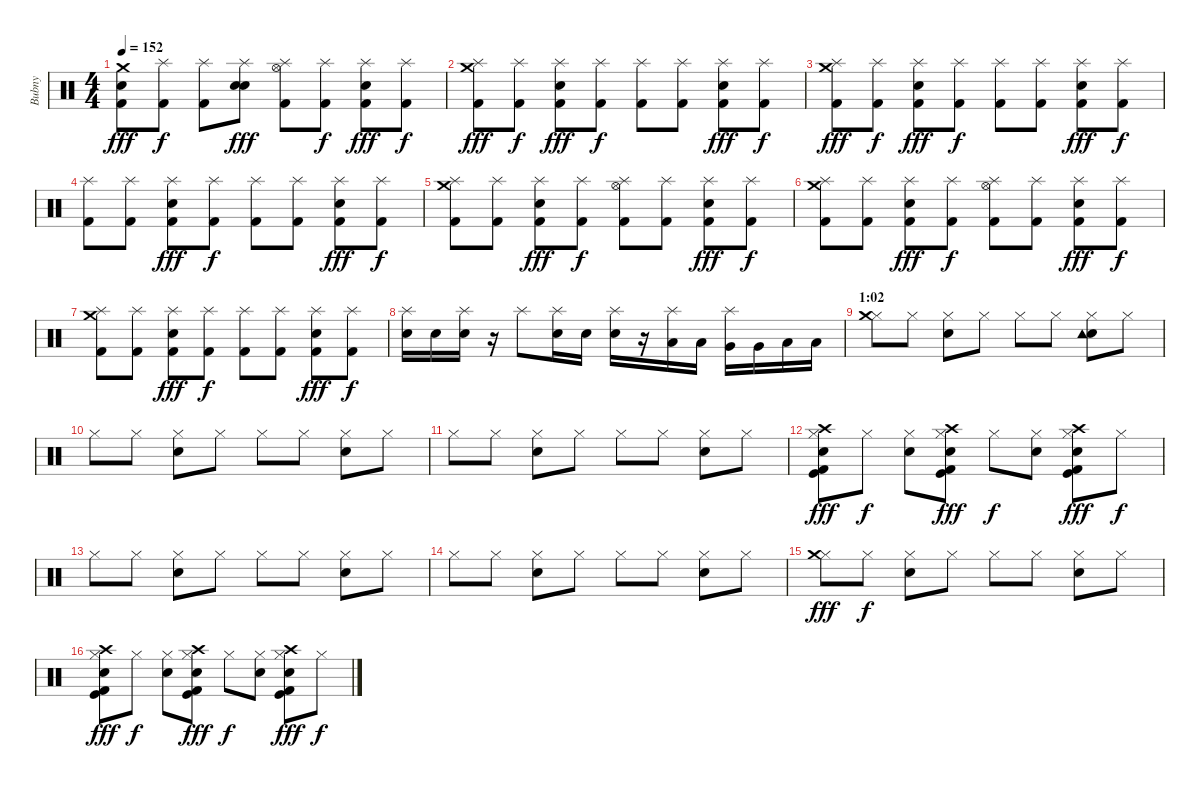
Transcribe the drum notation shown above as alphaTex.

\track ("Bubny" "Bubny") {instrument percussion}
\staff {score}
\articulation defaults
\ts (4 4)
\tempo 152
\clef neutral
\ks c
("Kick (hit) 2" "Electric Snare (hit)" "Crash medium (hit)").8{dy fff} ("Splash (hit)" "Kick (hit) 2").8{dy f} ("Splash (hit)" "Kick (hit) 2").8 ("Splash (hit)" "Electric Snare (hit)" "Snare (hit) 2").8{dy fff} ("Splash (hit)" "Kick (hit) 2" "Hi-Hat (open)").8 ("Splash (hit)" "Kick (hit) 2").8{dy f} ("Splash (hit)" "Kick (hit) 2" "Snare (hit) 2").8{dy fff} ("Splash (hit)" "Kick (hit) 2").8{dy f} |
("Splash (hit)" "Kick (hit) 2" "Crash medium (hit)").8{dy fff} ("Splash (hit)" "Kick (hit) 2").8{dy f} ("Splash (hit)" "Kick (hit) 2" "Snare (hit) 2").8{dy fff} ("Splash (hit)" "Kick (hit) 2").8{dy f} ("Splash (hit)" "Kick (hit) 2").8 ("Splash (hit)" "Kick (hit) 2").8 ("Splash (hit)" "Kick (hit) 2" "Snare (hit) 2").8{dy fff} ("Splash (hit)" "Kick (hit) 2").8{dy f} |
("Splash (hit)" "Kick (hit) 2" "Crash medium (hit)").8{dy fff} ("Splash (hit)" "Kick (hit) 2").8{dy f} ("Splash (hit)" "Kick (hit) 2" "Snare (hit) 2").8{dy fff} ("Splash (hit)" "Kick (hit) 2").8{dy f} ("Splash (hit)" "Kick (hit) 2").8 ("Splash (hit)" "Kick (hit) 2").8 ("Splash (hit)" "Kick (hit) 2" "Snare (hit) 2").8{dy fff} ("Splash (hit)" "Kick (hit) 2").8{dy f} |
("Splash (hit)" "Kick (hit) 2").8 ("Splash (hit)" "Kick (hit) 2").8 ("Splash (hit)" "Kick (hit) 2" "Snare (hit) 2").8{dy fff} ("Splash (hit)" "Kick (hit) 2").8{dy f} ("Splash (hit)" "Kick (hit) 2").8 ("Splash (hit)" "Kick (hit) 2").8 ("Splash (hit)" "Kick (hit) 2" "Snare (hit) 2").8{dy fff} ("Splash (hit)" "Kick (hit) 2").8{dy f} |
("Splash (hit)" "Kick (hit) 2" "Crash medium (hit)").8 ("Splash (hit)" "Kick (hit) 2").8 ("Splash (hit)" "Kick (hit) 2" "Snare (hit) 2").8{dy fff} ("Splash (hit)" "Kick (hit) 2").8{dy f} ("Splash (hit)" "Kick (hit) 2" "Hi-Hat (open)").8 ("Splash (hit)" "Kick (hit) 2").8 ("Splash (hit)" "Kick (hit) 2" "Snare (hit) 2").8{dy fff} ("Splash (hit)" "Kick (hit) 2").8{dy f} |
("Splash (hit)" "Kick (hit) 2" "Crash medium (hit)").8 ("Splash (hit)" "Kick (hit) 2").8 ("Splash (hit)" "Kick (hit) 2" "Snare (hit) 2").8{dy fff} ("Splash (hit)" "Kick (hit) 2").8{dy f} ("Splash (hit)" "Kick (hit) 2" "Hi-Hat (open)").8 ("Splash (hit)" "Kick (hit) 2").8 ("Splash (hit)" "Kick (hit) 2" "Snare (hit) 2").8{dy fff} ("Splash (hit)" "Kick (hit) 2").8{dy f} |
("Splash (hit)" "Kick (hit) 2" "Crash medium (hit)").8 ("Splash (hit)" "Kick (hit) 2").8 ("Splash (hit)" "Kick (hit) 2" "Snare (hit) 2").8{dy fff} ("Splash (hit)" "Kick (hit) 2").8{dy f} ("Splash (hit)" "Kick (hit) 2").8 ("Splash (hit)" "Kick (hit) 2").8 ("Splash (hit)" "Kick (hit) 2" "Snare (hit) 2").8{dy fff} ("Splash (hit)" "Kick (hit) 2").8{dy f} |
("Splash (hit)" "Snare (hit) 2").16 "Snare (hit) 2".16 ("Splash (hit)" "Snare (hit) 2").16 r.16 "Splash (hit)".8 ("Splash (hit)" "Snare (hit) 2").16 "Snare (hit) 2".16 ("Splash (hit)" "Snare (hit) 2").16 r.16 ("Splash (hit)" "Low Tom (hit)").16 "Low Tom (hit)".16 ("Splash (hit)" "Very Low Tom (hit)").16 "Very Low Tom (hit)".16 "Low Floor Tom (hit)".16 "Low Floor Tom (hit)".16 |
\section ("" "1:02")
("Hi-Hat (closed)" "Crash medium (hit)").8 "Hi-Hat (closed)".8 ("Hi-Hat (closed)" "Snare (hit) 2").8 "Hi-Hat (closed)".8 "Hi-Hat (closed)".8 "Hi-Hat (closed)".8 ("Hi-Hat (closed)" "Snare (hit) 2" "Tambourine (hit)").8 "Hi-Hat (closed)".8 |
"Hi-Hat (closed)".8 "Hi-Hat (closed)".8 ("Hi-Hat (closed)" "Snare (hit) 2").8 "Hi-Hat (closed)".8 "Hi-Hat (closed)".8 "Hi-Hat (closed)".8 ("Hi-Hat (closed)" "Snare (hit) 2").8 "Hi-Hat (closed)".8 |
"Hi-Hat (closed)".8 "Hi-Hat (closed)".8 ("Hi-Hat (closed)" "Snare (hit) 2").8 "Hi-Hat (closed)".8 "Hi-Hat (closed)".8 "Hi-Hat (closed)".8 ("Hi-Hat (closed)" "Snare (hit) 2").8 "Hi-Hat (closed)".8 |
("Hi-Hat (closed)" "Crash high (hit)" "Kick (hit) 2" "Kick (hit)" "Snare (hit) 2").8{dy fff} "Hi-Hat (closed)".8{dy f} ("Hi-Hat (closed)" "Snare (hit) 2").8 ("Hi-Hat (closed)" "Crash high (hit)" "Kick (hit) 2" "Kick (hit)" "Snare (hit) 2").8{dy fff} "Hi-Hat (closed)".8{dy f} ("Hi-Hat (closed)" "Snare (hit) 2").8 ("Hi-Hat (closed)" "Crash high (hit)" "Kick (hit) 2" "Kick (hit)" "Snare (hit) 2").8{dy fff} "Hi-Hat (closed)".8{dy f} |
"Hi-Hat (closed)".8 "Hi-Hat (closed)".8 ("Hi-Hat (closed)" "Snare (hit) 2").8 "Hi-Hat (closed)".8 "Hi-Hat (closed)".8 "Hi-Hat (closed)".8 ("Hi-Hat (closed)" "Snare (hit) 2").8 "Hi-Hat (closed)".8 |
"Hi-Hat (closed)".8 "Hi-Hat (closed)".8 ("Hi-Hat (closed)" "Snare (hit) 2").8 "Hi-Hat (closed)".8 "Hi-Hat (closed)".8 "Hi-Hat (closed)".8 ("Hi-Hat (closed)" "Snare (hit) 2").8 "Hi-Hat (closed)".8 |
("Hi-Hat (closed)" "Crash medium (hit)").8{dy fff} "Hi-Hat (closed)".8{dy f} ("Hi-Hat (closed)" "Snare (hit) 2").8 "Hi-Hat (closed)".8 "Hi-Hat (closed)".8 "Hi-Hat (closed)".8 ("Hi-Hat (closed)" "Snare (hit) 2").8 "Hi-Hat (closed)".8 |
("Hi-Hat (closed)" "Crash high (hit)" "Kick (hit) 2" "Kick (hit)" "Snare (hit) 2").8{dy fff} "Hi-Hat (closed)".8{dy f} ("Hi-Hat (closed)" "Snare (hit) 2").8 ("Hi-Hat (closed)" "Crash high (hit)" "Kick (hit) 2" "Kick (hit)" "Snare (hit) 2").8{dy fff} "Hi-Hat (closed)".8{dy f} ("Hi-Hat (closed)" "Snare (hit) 2").8 ("Hi-Hat (closed)" "Crash high (hit)" "Kick (hit) 2" "Kick (hit)" "Snare (hit) 2").8{dy fff} "Hi-Hat (closed)".8{dy f}
